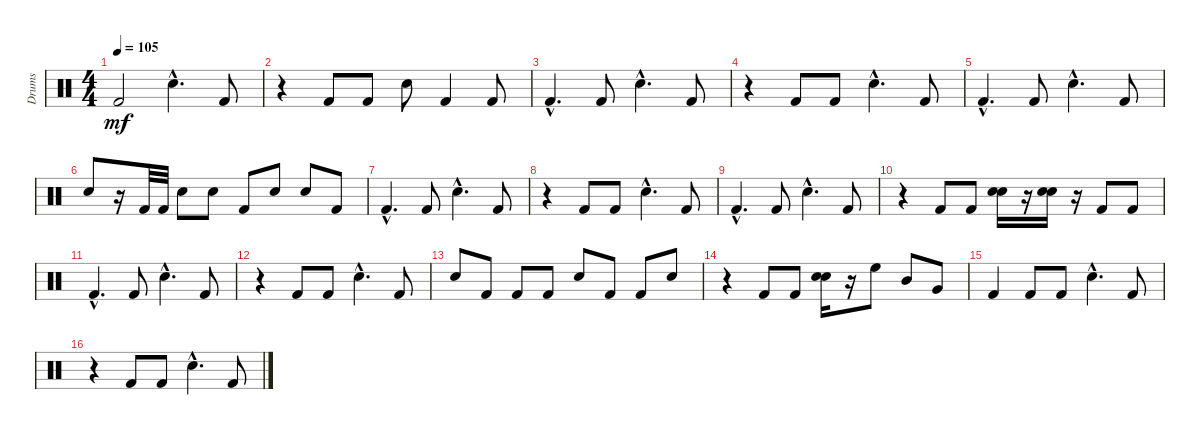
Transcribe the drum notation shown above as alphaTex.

\track ("Drums" "Drums") {instrument percussion}
\staff {score}
\articulation defaults
\ts (4 4)
\tempo 105
\clef neutral
\ks c "Kick (hit) 2".2{dy mf} "Snare (hit) 2"{hac}.4{d} "Kick (hit) 2".8
|
r.4 "Kick (hit) 2".8 "Kick (hit) 2".8 "Snare (hit) 2".8 "Kick (hit) 2".4 "Kick (hit) 2".8 |
"Kick (hit) 2"{hac}.4{d} "Kick (hit) 2".8 "Snare (hit) 2"{hac}.4{d} "Kick (hit) 2".8 |
r.4 "Kick (hit) 2".8 "Kick (hit) 2".8 "Snare (hit) 2"{hac}.4{d} "Kick (hit) 2".8 |
"Kick (hit) 2"{hac}.4{d} "Kick (hit) 2".8 "Snare (hit) 2"{hac}.4{d} "Kick (hit) 2".8 |
"Snare (hit) 2".8 r.16 "Kick (hit) 2".32 "Kick (hit) 2".32 "Snare (hit) 2".8 "Snare (hit) 2".8 "Kick (hit) 2".8 "Snare (hit) 2".8 "Snare (hit) 2".8 "Kick (hit) 2".8 |
"Kick (hit) 2"{hac}.4{d} "Kick (hit) 2".8 "Snare (hit) 2"{hac}.4{d} "Kick (hit) 2".8 |
r.4 "Kick (hit) 2".8 "Kick (hit) 2".8 "Snare (hit) 2"{hac}.4{d} "Kick (hit) 2".8 |
"Kick (hit) 2"{hac}.4{d} "Kick (hit) 2".8 "Snare (hit) 2"{hac}.4{d} "Kick (hit) 2".8 |
r.4 "Kick (hit) 2".8 "Kick (hit) 2".8 ("Snare (hit) 2" "Snare (hit) 2").16 r.16 ("Snare (hit) 2" "Snare (hit) 2").16 r.16 "Kick (hit) 2".8 "Kick (hit) 2".8 |
"Kick (hit) 2"{hac}.4{d} "Kick (hit) 2".8 "Snare (hit) 2"{hac}.4{d} "Kick (hit) 2".8 |
r.4 "Kick (hit) 2".8 "Kick (hit) 2".8 "Snare (hit) 2"{hac}.4{d} "Kick (hit) 2".8 |
"Snare (hit) 2".8 "Kick (hit) 2".8 "Kick (hit) 2".8 "Kick (hit) 2".8 "Snare (hit) 2".8 "Kick (hit) 2".8 "Kick (hit) 2".8 "Snare (hit) 2".8 |
r.4 "Kick (hit) 2".8 "Kick (hit) 2".8 ("Snare (hit) 2" "Snare (hit) 2").16 r.16 "High Floor Tom (hit)".8 "Mid Tom (hit)".8 "Very Low Tom (hit)".8 |
"Kick (hit) 2".4 "Kick (hit) 2".8 "Kick (hit) 2".8 "Snare (hit) 2"{hac}.4{d} "Kick (hit) 2".8 |
r.4 "Kick (hit) 2".8 "Kick (hit) 2".8 "Snare (hit) 2"{hac}.4{d} "Kick (hit) 2".8
